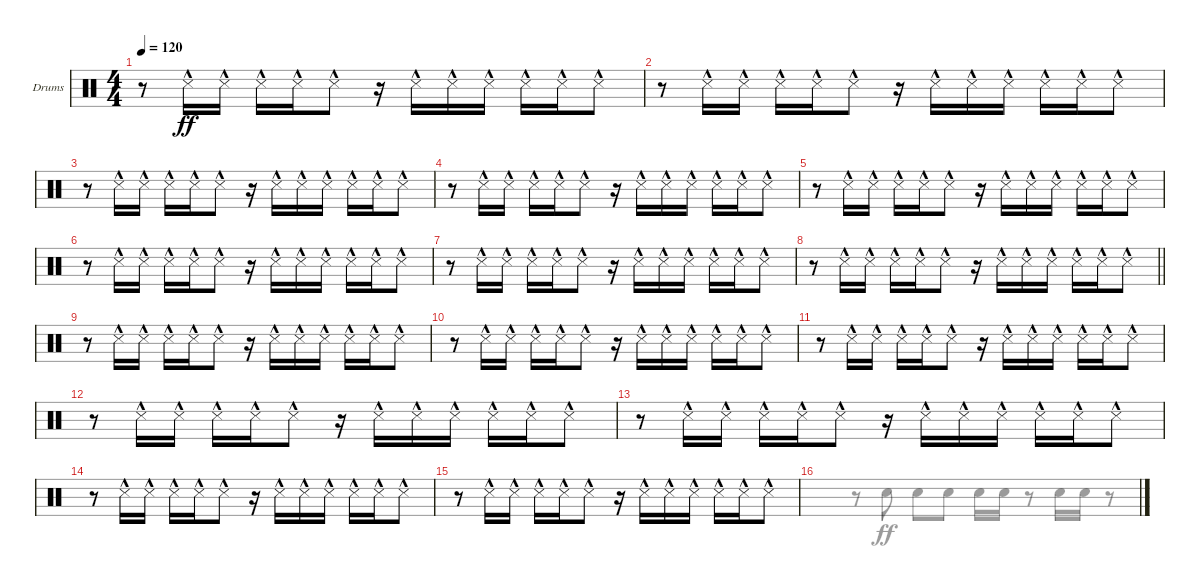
\defaultSystemsLayout 4
\bracketExtendMode groupsimilarinstruments
\firstSystemTrackNameOrientation horizontal
\otherSystemsTrackNameOrientation horizontal
\track ("Drumkit" "Drums") {instrument percussion}
\staff {score}
\articulation defaults
\voice
\ts (4 4)
\tempo 120
\clef neutral
\scale
0.472222
\ks c
r.8{dy ff} "Snare (side stick) 3"{hac}.16 "Snare (side stick) 3"{hac}.16 "Snare (side stick) 3"{hac}.16 "Snare (side stick) 3"{hac}.16 "Snare (side stick) 3"{hac}.8 r.16 "Snare (side stick) 3"{hac}.16 "Snare (side stick) 3"{hac}.16 "Snare (side stick) 3"{hac}.16 "Snare (side stick) 3"{hac}.16 "Snare (side stick) 3"{hac}.16 "Snare (side stick) 3"{hac}.8 |
\scale
0.263889 r.8 "Snare (side stick) 3"{hac}.16 "Snare (side stick) 3"{hac}.16 "Snare (side stick) 3"{hac}.16 "Snare (side stick) 3"{hac}.16 "Snare (side stick) 3"{hac}.8 r.16 "Snare (side stick) 3"{hac}.16 "Snare (side stick) 3"{hac}.16 "Snare (side stick) 3"{hac}.16 "Snare (side stick) 3"{hac}.16 "Snare (side stick) 3"{hac}.16 "Snare (side stick) 3"{hac}.8 |
\scale
0.263889 r.8 "Snare (side stick) 3"{hac}.16 "Snare (side stick) 3"{hac}.16 "Snare (side stick) 3"{hac}.16 "Snare (side stick) 3"{hac}.16 "Snare (side stick) 3"{hac}.8 r.16 "Snare (side stick) 3"{hac}.16 "Snare (side stick) 3"{hac}.16 "Snare (side stick) 3"{hac}.16 "Snare (side stick) 3"{hac}.16 "Snare (side stick) 3"{hac}.16 "Snare (side stick) 3"{hac}.8 |
\scale
0.333333 r.8 "Snare (side stick) 3"{hac}.16 "Snare (side stick) 3"{hac}.16 "Snare (side stick) 3"{hac}.16 "Snare (side stick) 3"{hac}.16 "Snare (side stick) 3"{hac}.8 r.16 "Snare (side stick) 3"{hac}.16 "Snare (side stick) 3"{hac}.16 "Snare (side stick) 3"{hac}.16 "Snare (side stick) 3"{hac}.16 "Snare (side stick) 3"{hac}.16 "Snare (side stick) 3"{hac}.8 |
\scale
0.333333 r.8 "Snare (side stick) 3"{hac}.16 "Snare (side stick) 3"{hac}.16 "Snare (side stick) 3"{hac}.16 "Snare (side stick) 3"{hac}.16 "Snare (side stick) 3"{hac}.8 r.16 "Snare (side stick) 3"{hac}.16 "Snare (side stick) 3"{hac}.16 "Snare (side stick) 3"{hac}.16 "Snare (side stick) 3"{hac}.16 "Snare (side stick) 3"{hac}.16 "Snare (side stick) 3"{hac}.8 |
\scale
0.333333 r.8 "Snare (side stick) 3"{hac}.16 "Snare (side stick) 3"{hac}.16 "Snare (side stick) 3"{hac}.16 "Snare (side stick) 3"{hac}.16 "Snare (side stick) 3"{hac}.8 r.16 "Snare (side stick) 3"{hac}.16 "Snare (side stick) 3"{hac}.16 "Snare (side stick) 3"{hac}.16 "Snare (side stick) 3"{hac}.16 "Snare (side stick) 3"{hac}.16 "Snare (side stick) 3"{hac}.8 |
\scale
0.333333 r.8 "Snare (side stick) 3"{hac}.16 "Snare (side stick) 3"{hac}.16 "Snare (side stick) 3"{hac}.16 "Snare (side stick) 3"{hac}.16 "Snare (side stick) 3"{hac}.8 r.16 "Snare (side stick) 3"{hac}.16 "Snare (side stick) 3"{hac}.16 "Snare (side stick) 3"{hac}.16 "Snare (side stick) 3"{hac}.16 "Snare (side stick) 3"{hac}.16 "Snare (side stick) 3"{hac}.8 |
\scale
0.333333
\barLineRight lightlight
r.8 "Snare (side stick) 3"{hac}.16 "Snare (side stick) 3"{hac}.16 "Snare (side stick) 3"{hac}.16 "Snare (side stick) 3"{hac}.16 "Snare (side stick) 3"{hac}.8 r.16 "Snare (side stick) 3"{hac}.16 "Snare (side stick) 3"{hac}.16 "Snare (side stick) 3"{hac}.16 "Snare (side stick) 3"{hac}.16 "Snare (side stick) 3"{hac}.16 "Snare (side stick) 3"{hac}.8 |
\scale
0.333333 r.8 "Snare (side stick) 3"{hac}.16 "Snare (side stick) 3"{hac}.16 "Snare (side stick) 3"{hac}.16 "Snare (side stick) 3"{hac}.16 "Snare (side stick) 3"{hac}.8 r.16 "Snare (side stick) 3"{hac}.16 "Snare (side stick) 3"{hac}.16 "Snare (side stick) 3"{hac}.16 "Snare (side stick) 3"{hac}.16 "Snare (side stick) 3"{hac}.16 "Snare (side stick) 3"{hac}.8 |
\scale
0.333333 r.8 "Snare (side stick) 3"{hac}.16 "Snare (side stick) 3"{hac}.16 "Snare (side stick) 3"{hac}.16 "Snare (side stick) 3"{hac}.16 "Snare (side stick) 3"{hac}.8 r.16 "Snare (side stick) 3"{hac}.16 "Snare (side stick) 3"{hac}.16 "Snare (side stick) 3"{hac}.16 "Snare (side stick) 3"{hac}.16 "Snare (side stick) 3"{hac}.16 "Snare (side stick) 3"{hac}.8 |
\scale
0.333333 r.8 "Snare (side stick) 3"{hac}.16 "Snare (side stick) 3"{hac}.16 "Snare (side stick) 3"{hac}.16 "Snare (side stick) 3"{hac}.16 "Snare (side stick) 3"{hac}.8 r.16 "Snare (side stick) 3"{hac}.16 "Snare (side stick) 3"{hac}.16 "Snare (side stick) 3"{hac}.16 "Snare (side stick) 3"{hac}.16 "Snare (side stick) 3"{hac}.16 "Snare (side stick) 3"{hac}.8 |
\scale
0.333333 r.8 "Snare (side stick) 3"{hac}.16 "Snare (side stick) 3"{hac}.16 "Snare (side stick) 3"{hac}.16 "Snare (side stick) 3"{hac}.16 "Snare (side stick) 3"{hac}.8 r.16 "Snare (side stick) 3"{hac}.16 "Snare (side stick) 3"{hac}.16 "Snare (side stick) 3"{hac}.16 "Snare (side stick) 3"{hac}.16 "Snare (side stick) 3"{hac}.16 "Snare (side stick) 3"{hac}.8 |
\scale
0.333333 r.8 "Snare (side stick) 3"{hac}.16 "Snare (side stick) 3"{hac}.16 "Snare (side stick) 3"{hac}.16 "Snare (side stick) 3"{hac}.16 "Snare (side stick) 3"{hac}.8 r.16 "Snare (side stick) 3"{hac}.16 "Snare (side stick) 3"{hac}.16 "Snare (side stick) 3"{hac}.16 "Snare (side stick) 3"{hac}.16 "Snare (side stick) 3"{hac}.16 "Snare (side stick) 3"{hac}.8 |
\scale
0.333333 r.8 "Snare (side stick) 3"{hac}.16 "Snare (side stick) 3"{hac}.16 "Snare (side stick) 3"{hac}.16 "Snare (side stick) 3"{hac}.16 "Snare (side stick) 3"{hac}.8 r.16 "Snare (side stick) 3"{hac}.16 "Snare (side stick) 3"{hac}.16 "Snare (side stick) 3"{hac}.16 "Snare (side stick) 3"{hac}.16 "Snare (side stick) 3"{hac}.16 "Snare (side stick) 3"{hac}.8 |
\scale
0.333333 r.8 "Snare (side stick) 3"{hac}.16 "Snare (side stick) 3"{hac}.16 "Snare (side stick) 3"{hac}.16 "Snare (side stick) 3"{hac}.16 "Snare (side stick) 3"{hac}.8 r.16 "Snare (side stick) 3"{hac}.16 "Snare (side stick) 3"{hac}.16 "Snare (side stick) 3"{hac}.16 "Snare (side stick) 3"{hac}.16 "Snare (side stick) 3"{hac}.16 "Snare (side stick) 3"{hac}.8 |
\scale
0.333333
\voice
\clef neutral
\ottava regular
\simile none
\scale
0.472222
\ks c
|
\scale
0.263889 |
\scale
0.263889 |
\scale
0.333333 |
\scale
0.333333 |
\scale
0.333333 |
\scale
0.333333 |
\scale
0.333333
\barLineRight lightlight
|
\scale
0.333333 |
\scale
0.333333 |
\scale
0.333333 |
\scale
0.333333 |
\scale
0.333333 |
\scale
0.333333 |
\scale
0.333333 |
\scale
0.333333 r.8 "Snare (hit) 2".8 "Snare (hit) 2".8 "Snare (hit) 2".8 "Snare (hit) 2".16 "Snare (hit) 2".16 r.8 "Snare (hit) 2".16 "Snare (hit) 2".16 r.8
